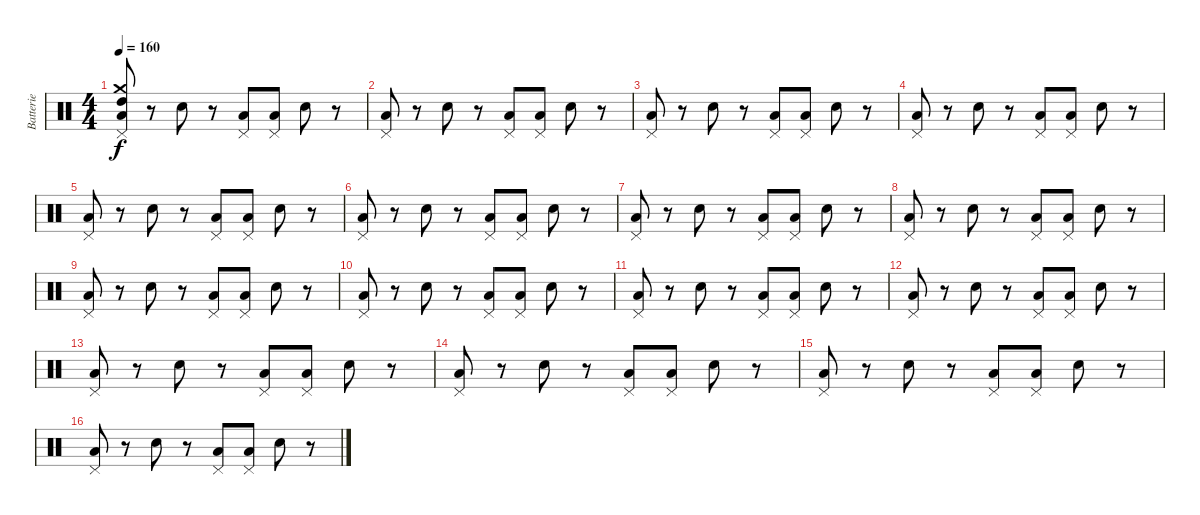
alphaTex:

\track ("Batterie" "Batterie") {instrument percussion}
\staff {score}
\articulation defaults
\ts (4 4)
\tempo 160
\clef neutral
\ks c
("Pedal Hi-Hat (hit)" "Low Floor Tom (hit)" "Crash medium (hit)" "High Tom (hit)").8{dy f} r.8 "Electric Snare (hit)".8 r.8 ("Pedal Hi-Hat (hit)" "Low Floor Tom (hit)").8 ("Pedal Hi-Hat (hit)" "Low Floor Tom (hit)").8 "Electric Snare (hit)".8 r.8 |
("Pedal Hi-Hat (hit)" "Low Floor Tom (hit)").8 r.8 "Electric Snare (hit)".8 r.8 ("Pedal Hi-Hat (hit)" "Low Floor Tom (hit)").8 ("Pedal Hi-Hat (hit)" "Low Floor Tom (hit)").8 "Electric Snare (hit)".8 r.8 |
("Pedal Hi-Hat (hit)" "Low Floor Tom (hit)").8 r.8 "Electric Snare (hit)".8 r.8 ("Pedal Hi-Hat (hit)" "Low Floor Tom (hit)").8 ("Pedal Hi-Hat (hit)" "Low Floor Tom (hit)").8 "Electric Snare (hit)".8 r.8 |
("Pedal Hi-Hat (hit)" "Low Floor Tom (hit)").8 r.8 "Electric Snare (hit)".8 r.8 ("Pedal Hi-Hat (hit)" "Low Floor Tom (hit)").8 ("Pedal Hi-Hat (hit)" "Low Floor Tom (hit)").8 "Electric Snare (hit)".8 r.8 |
("Pedal Hi-Hat (hit)" "Low Floor Tom (hit)").8 r.8 "Electric Snare (hit)".8 r.8 ("Pedal Hi-Hat (hit)" "Low Floor Tom (hit)").8 ("Pedal Hi-Hat (hit)" "Low Floor Tom (hit)").8 "Electric Snare (hit)".8 r.8 |
("Pedal Hi-Hat (hit)" "Low Floor Tom (hit)").8 r.8 "Electric Snare (hit)".8 r.8 ("Pedal Hi-Hat (hit)" "Low Floor Tom (hit)").8 ("Pedal Hi-Hat (hit)" "Low Floor Tom (hit)").8 "Electric Snare (hit)".8 r.8 |
("Pedal Hi-Hat (hit)" "Low Floor Tom (hit)").8 r.8 "Electric Snare (hit)".8 r.8 ("Pedal Hi-Hat (hit)" "Low Floor Tom (hit)").8 ("Pedal Hi-Hat (hit)" "Low Floor Tom (hit)").8 "Electric Snare (hit)".8 r.8 |
("Pedal Hi-Hat (hit)" "Low Floor Tom (hit)").8 r.8 "Electric Snare (hit)".8 r.8 ("Pedal Hi-Hat (hit)" "Low Floor Tom (hit)").8 ("Pedal Hi-Hat (hit)" "Low Floor Tom (hit)").8 "Electric Snare (hit)".8 r.8 |
("Pedal Hi-Hat (hit)" "Low Floor Tom (hit)").8 r.8 "Electric Snare (hit)".8 r.8 ("Pedal Hi-Hat (hit)" "Low Floor Tom (hit)").8 ("Pedal Hi-Hat (hit)" "Low Floor Tom (hit)").8 "Electric Snare (hit)".8 r.8 |
("Pedal Hi-Hat (hit)" "Low Floor Tom (hit)").8 r.8 "Electric Snare (hit)".8 r.8 ("Pedal Hi-Hat (hit)" "Low Floor Tom (hit)").8 ("Pedal Hi-Hat (hit)" "Low Floor Tom (hit)").8 "Electric Snare (hit)".8 r.8 |
("Pedal Hi-Hat (hit)" "Low Floor Tom (hit)").8 r.8 "Electric Snare (hit)".8 r.8 ("Pedal Hi-Hat (hit)" "Low Floor Tom (hit)").8 ("Pedal Hi-Hat (hit)" "Low Floor Tom (hit)").8 "Electric Snare (hit)".8 r.8 |
("Pedal Hi-Hat (hit)" "Low Floor Tom (hit)").8 r.8 "Electric Snare (hit)".8 r.8 ("Pedal Hi-Hat (hit)" "Low Floor Tom (hit)").8 ("Pedal Hi-Hat (hit)" "Low Floor Tom (hit)").8 "Electric Snare (hit)".8 r.8 |
("Pedal Hi-Hat (hit)" "Low Floor Tom (hit)").8 r.8 "Electric Snare (hit)".8 r.8 ("Pedal Hi-Hat (hit)" "Low Floor Tom (hit)").8 ("Pedal Hi-Hat (hit)" "Low Floor Tom (hit)").8 "Electric Snare (hit)".8 r.8 |
("Pedal Hi-Hat (hit)" "Low Floor Tom (hit)").8 r.8 "Electric Snare (hit)".8 r.8 ("Pedal Hi-Hat (hit)" "Low Floor Tom (hit)").8 ("Pedal Hi-Hat (hit)" "Low Floor Tom (hit)").8 "Electric Snare (hit)".8 r.8 |
("Pedal Hi-Hat (hit)" "Low Floor Tom (hit)").8 r.8 "Electric Snare (hit)".8 r.8 ("Pedal Hi-Hat (hit)" "Low Floor Tom (hit)").8 ("Pedal Hi-Hat (hit)" "Low Floor Tom (hit)").8 "Electric Snare (hit)".8 r.8 |
("Pedal Hi-Hat (hit)" "Low Floor Tom (hit)").8 r.8 "Electric Snare (hit)".8 r.8 ("Pedal Hi-Hat (hit)" "Low Floor Tom (hit)").8 ("Pedal Hi-Hat (hit)" "Low Floor Tom (hit)").8 "Electric Snare (hit)".8 r.8
